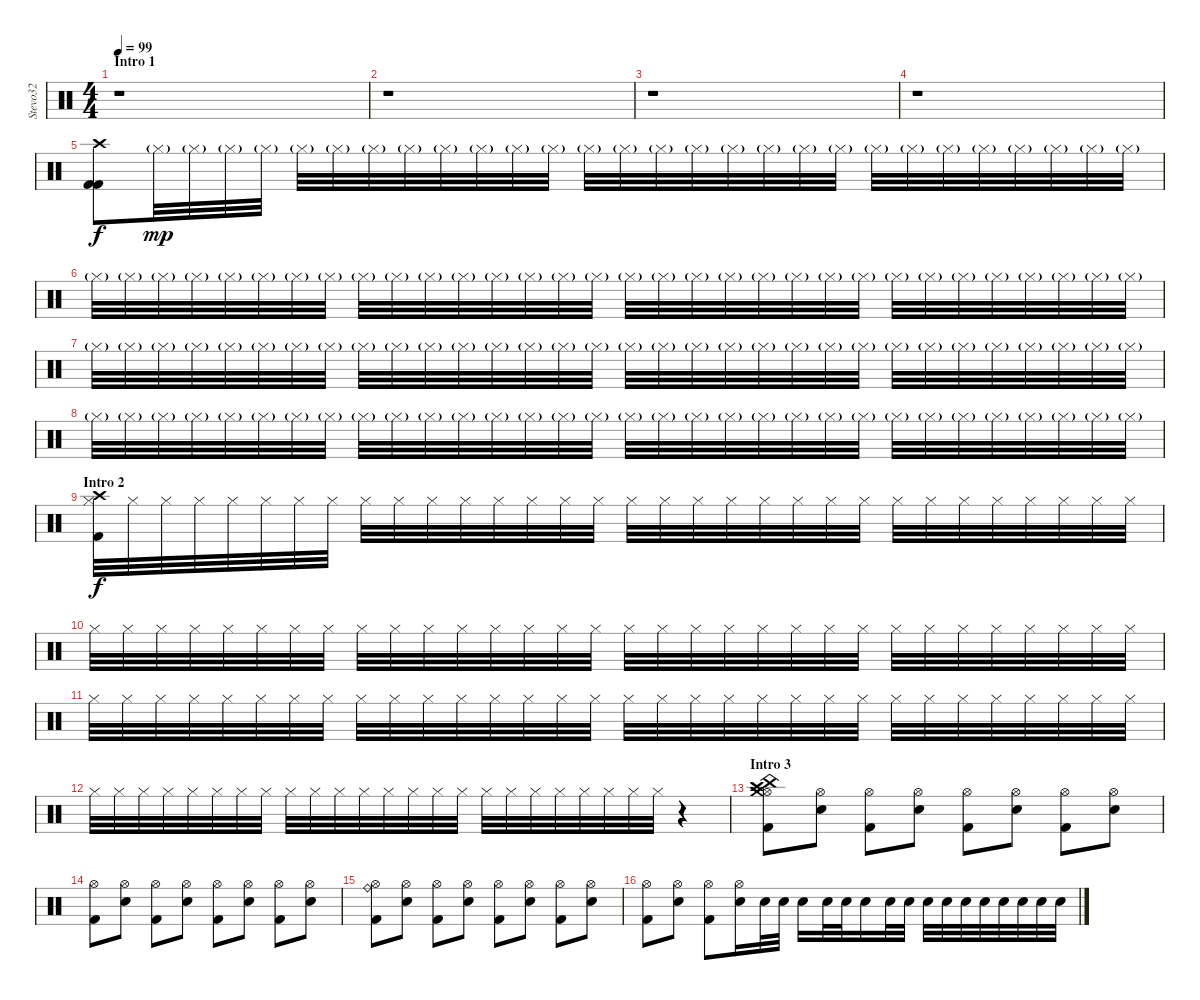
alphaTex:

\track ("Stevo32" "Stevo32") {instrument percussion}
\staff {score}
\articulation defaults
\ts (4 4)
\section ("" "Intro 1")
\tempo 99
\clef neutral
\ks c
r.1{dy f} |
r.1 |
r.1 |
r.1 |
("Crash high (hit)" "Kick (hit) 2" "Kick (hit) 2").8 "Hi-Hat (closed)"{g}.32{dy mp} "Hi-Hat (closed)"{g}.32 "Hi-Hat (closed)"{g}.32 "Hi-Hat (closed)"{g}.32 "Hi-Hat (closed)"{g}.32 "Hi-Hat (closed)"{g}.32 "Hi-Hat (closed)"{g}.32 "Hi-Hat (closed)"{g}.32 "Hi-Hat (closed)"{g}.32 "Hi-Hat (closed)"{g}.32 "Hi-Hat (closed)"{g}.32 "Hi-Hat (closed)"{g}.32 "Hi-Hat (closed)"{g}.32 "Hi-Hat (closed)"{g}.32 "Hi-Hat (closed)"{g}.32 "Hi-Hat (closed)"{g}.32 "Hi-Hat (closed)"{g}.32 "Hi-Hat (closed)"{g}.32 "Hi-Hat (closed)"{g}.32 "Hi-Hat (closed)"{g}.32 "Hi-Hat (closed)"{g}.32 "Hi-Hat (closed)"{g}.32 "Hi-Hat (closed)"{g}.32 "Hi-Hat (closed)"{g}.32 "Hi-Hat (closed)"{g}.32 "Hi-Hat (closed)"{g}.32 "Hi-Hat (closed)"{g}.32 "Hi-Hat (closed)"{g}.32 |
"Hi-Hat (closed)"{g}.32 "Hi-Hat (closed)"{g}.32 "Hi-Hat (closed)"{g}.32 "Hi-Hat (closed)"{g}.32 "Hi-Hat (closed)"{g}.32 "Hi-Hat (closed)"{g}.32 "Hi-Hat (closed)"{g}.32 "Hi-Hat (closed)"{g}.32 "Hi-Hat (closed)"{g}.32 "Hi-Hat (closed)"{g}.32 "Hi-Hat (closed)"{g}.32 "Hi-Hat (closed)"{g}.32 "Hi-Hat (closed)"{g}.32 "Hi-Hat (closed)"{g}.32 "Hi-Hat (closed)"{g}.32 "Hi-Hat (closed)"{g}.32 "Hi-Hat (closed)"{g}.32 "Hi-Hat (closed)"{g}.32 "Hi-Hat (closed)"{g}.32 "Hi-Hat (closed)"{g}.32 "Hi-Hat (closed)"{g}.32 "Hi-Hat (closed)"{g}.32 "Hi-Hat (closed)"{g}.32 "Hi-Hat (closed)"{g}.32 "Hi-Hat (closed)"{g}.32 "Hi-Hat (closed)"{g}.32 "Hi-Hat (closed)"{g}.32 "Hi-Hat (closed)"{g}.32 "Hi-Hat (closed)"{g}.32 "Hi-Hat (closed)"{g}.32 "Hi-Hat (closed)"{g}.32 "Hi-Hat (closed)"{g}.32 |
"Hi-Hat (closed)"{g}.32 "Hi-Hat (closed)"{g}.32 "Hi-Hat (closed)"{g}.32 "Hi-Hat (closed)"{g}.32 "Hi-Hat (closed)"{g}.32 "Hi-Hat (closed)"{g}.32 "Hi-Hat (closed)"{g}.32 "Hi-Hat (closed)"{g}.32 "Hi-Hat (closed)"{g}.32 "Hi-Hat (closed)"{g}.32 "Hi-Hat (closed)"{g}.32 "Hi-Hat (closed)"{g}.32 "Hi-Hat (closed)"{g}.32 "Hi-Hat (closed)"{g}.32 "Hi-Hat (closed)"{g}.32 "Hi-Hat (closed)"{g}.32 "Hi-Hat (closed)"{g}.32 "Hi-Hat (closed)"{g}.32 "Hi-Hat (closed)"{g}.32 "Hi-Hat (closed)"{g}.32 "Hi-Hat (closed)"{g}.32 "Hi-Hat (closed)"{g}.32 "Hi-Hat (closed)"{g}.32 "Hi-Hat (closed)"{g}.32 "Hi-Hat (closed)"{g}.32 "Hi-Hat (closed)"{g}.32 "Hi-Hat (closed)"{g}.32 "Hi-Hat (closed)"{g}.32 "Hi-Hat (closed)"{g}.32 "Hi-Hat (closed)"{g}.32 "Hi-Hat (closed)"{g}.32 "Hi-Hat (closed)"{g}.32 |
"Hi-Hat (closed)"{g}.32 "Hi-Hat (closed)"{g}.32 "Hi-Hat (closed)"{g}.32 "Hi-Hat (closed)"{g}.32 "Hi-Hat (closed)"{g}.32 "Hi-Hat (closed)"{g}.32 "Hi-Hat (closed)"{g}.32 "Hi-Hat (closed)"{g}.32 "Hi-Hat (closed)"{g}.32 "Hi-Hat (closed)"{g}.32 "Hi-Hat (closed)"{g}.32 "Hi-Hat (closed)"{g}.32 "Hi-Hat (closed)"{g}.32 "Hi-Hat (closed)"{g}.32 "Hi-Hat (closed)"{g}.32 "Hi-Hat (closed)"{g}.32 "Hi-Hat (closed)"{g}.32 "Hi-Hat (closed)"{g}.32 "Hi-Hat (closed)"{g}.32 "Hi-Hat (closed)"{g}.32 "Hi-Hat (closed)"{g}.32 "Hi-Hat (closed)"{g}.32 "Hi-Hat (closed)"{g}.32 "Hi-Hat (closed)"{g}.32 "Hi-Hat (closed)"{g}.32 "Hi-Hat (closed)"{g}.32 "Hi-Hat (closed)"{g}.32 "Hi-Hat (closed)"{g}.32 "Hi-Hat (closed)"{g}.32 "Hi-Hat (closed)"{g}.32 "Hi-Hat (closed)"{g}.32 "Hi-Hat (closed)"{g}.32 |
\section ("" "Intro 2")
("Crash high (hit)" "Hi-Hat (closed)" "Kick (hit) 2").32{dy f} "Hi-Hat (closed)".32 "Hi-Hat (closed)".32 "Hi-Hat (closed)".32 "Hi-Hat (closed)".32 "Hi-Hat (closed)".32 "Hi-Hat (closed)".32 "Hi-Hat (closed)".32 "Hi-Hat (closed)".32 "Hi-Hat (closed)".32 "Hi-Hat (closed)".32 "Hi-Hat (closed)".32 "Hi-Hat (closed)".32 "Hi-Hat (closed)".32 "Hi-Hat (closed)".32 "Hi-Hat (closed)".32 "Hi-Hat (closed)".32 "Hi-Hat (closed)".32 "Hi-Hat (closed)".32 "Hi-Hat (closed)".32 "Hi-Hat (closed)".32 "Hi-Hat (closed)".32 "Hi-Hat (closed)".32 "Hi-Hat (closed)".32 "Hi-Hat (closed)".32 "Hi-Hat (closed)".32 "Hi-Hat (closed)".32 "Hi-Hat (closed)".32 "Hi-Hat (closed)".32 "Hi-Hat (closed)".32 "Hi-Hat (closed)".32 "Hi-Hat (closed)".32 |
"Hi-Hat (closed)".32 "Hi-Hat (closed)".32 "Hi-Hat (closed)".32 "Hi-Hat (closed)".32 "Hi-Hat (closed)".32 "Hi-Hat (closed)".32 "Hi-Hat (closed)".32 "Hi-Hat (closed)".32 "Hi-Hat (closed)".32 "Hi-Hat (closed)".32 "Hi-Hat (closed)".32 "Hi-Hat (closed)".32 "Hi-Hat (closed)".32 "Hi-Hat (closed)".32 "Hi-Hat (closed)".32 "Hi-Hat (closed)".32 "Hi-Hat (closed)".32 "Hi-Hat (closed)".32 "Hi-Hat (closed)".32 "Hi-Hat (closed)".32 "Hi-Hat (closed)".32 "Hi-Hat (closed)".32 "Hi-Hat (closed)".32 "Hi-Hat (closed)".32 "Hi-Hat (closed)".32 "Hi-Hat (closed)".32 "Hi-Hat (closed)".32 "Hi-Hat (closed)".32 "Hi-Hat (closed)".32 "Hi-Hat (closed)".32 "Hi-Hat (closed)".32 "Hi-Hat (closed)".32 |
"Hi-Hat (closed)".32 "Hi-Hat (closed)".32 "Hi-Hat (closed)".32 "Hi-Hat (closed)".32 "Hi-Hat (closed)".32 "Hi-Hat (closed)".32 "Hi-Hat (closed)".32 "Hi-Hat (closed)".32 "Hi-Hat (closed)".32 "Hi-Hat (closed)".32 "Hi-Hat (closed)".32 "Hi-Hat (closed)".32 "Hi-Hat (closed)".32 "Hi-Hat (closed)".32 "Hi-Hat (closed)".32 "Hi-Hat (closed)".32 "Hi-Hat (closed)".32 "Hi-Hat (closed)".32 "Hi-Hat (closed)".32 "Hi-Hat (closed)".32 "Hi-Hat (closed)".32 "Hi-Hat (closed)".32 "Hi-Hat (closed)".32 "Hi-Hat (closed)".32 "Hi-Hat (closed)".32 "Hi-Hat (closed)".32 "Hi-Hat (closed)".32 "Hi-Hat (closed)".32 "Hi-Hat (closed)".32 "Hi-Hat (closed)".32 "Hi-Hat (closed)".32 "Hi-Hat (closed)".32 |
"Hi-Hat (closed)".32 "Hi-Hat (closed)".32 "Hi-Hat (closed)".32 "Hi-Hat (closed)".32 "Hi-Hat (closed)".32 "Hi-Hat (closed)".32 "Hi-Hat (closed)".32 "Hi-Hat (closed)".32 "Hi-Hat (closed)".32 "Hi-Hat (closed)".32 "Hi-Hat (closed)".32 "Hi-Hat (closed)".32 "Hi-Hat (closed)".32 "Hi-Hat (closed)".32 "Hi-Hat (closed)".32 "Hi-Hat (closed)".32 "Hi-Hat (closed)".32 "Hi-Hat (closed)".32 "Hi-Hat (closed)".32 "Hi-Hat (closed)".32 "Hi-Hat (closed)".32 "Hi-Hat (closed)".32 "Hi-Hat (closed)".32 "Hi-Hat (closed)".32 r.4 |
\section ("" "Intro 3")
("China (hit)" "Crash high (hit)" "Hi-Hat (open)" "Crash medium (hit)" "Kick (hit) 2").8 ("Hi-Hat (open)" "Electric Snare (hit)").8 ("Hi-Hat (open)" "Kick (hit) 2").8 ("Hi-Hat (open)" "Electric Snare (hit)").8 ("Hi-Hat (open)" "Kick (hit) 2").8 ("Hi-Hat (open)" "Electric Snare (hit)").8 ("Hi-Hat (open)" "Kick (hit) 2").8 ("Hi-Hat (open)" "Electric Snare (hit)").8 |
("Hi-Hat (open)" "Kick (hit) 2").8 ("Hi-Hat (open)" "Electric Snare (hit)").8 ("Hi-Hat (open)" "Kick (hit) 2").8 ("Hi-Hat (open)" "Electric Snare (hit)").8 ("Hi-Hat (open)" "Kick (hit) 2").8 ("Hi-Hat (open)" "Electric Snare (hit)").8 ("Hi-Hat (open)" "Kick (hit) 2").8 ("Hi-Hat (open)" "Electric Snare (hit)").8 |
("Hi-Hat (open)" "Ride (bell)" "Kick (hit) 2").8 ("Hi-Hat (open)" "Electric Snare (hit)").8 ("Hi-Hat (open)" "Kick (hit) 2").8 ("Hi-Hat (open)" "Electric Snare (hit)").8 ("Hi-Hat (open)" "Kick (hit) 2").8 ("Hi-Hat (open)" "Electric Snare (hit)").8 ("Hi-Hat (open)" "Kick (hit) 2").8 ("Hi-Hat (open)" "Electric Snare (hit)").8 |
("Hi-Hat (open)" "Kick (hit) 2").8 ("Hi-Hat (open)" "Electric Snare (hit)").8 ("Hi-Hat (open)" "Kick (hit) 2").8 ("Hi-Hat (open)" "Electric Snare (hit)").16 "Electric Snare (hit)".32 "Electric Snare (hit)".32 "Electric Snare (hit)".16 "Electric Snare (hit)".32 "Electric Snare (hit)".32 "Electric Snare (hit)".16 "Electric Snare (hit)".32 "Electric Snare (hit)".32 "Electric Snare (hit)".32 "Electric Snare (hit)".32 "Electric Snare (hit)".32 "Electric Snare (hit)".32 "Electric Snare (hit)".32 "Electric Snare (hit)".32 "Electric Snare (hit)".32 "Electric Snare (hit)".32
